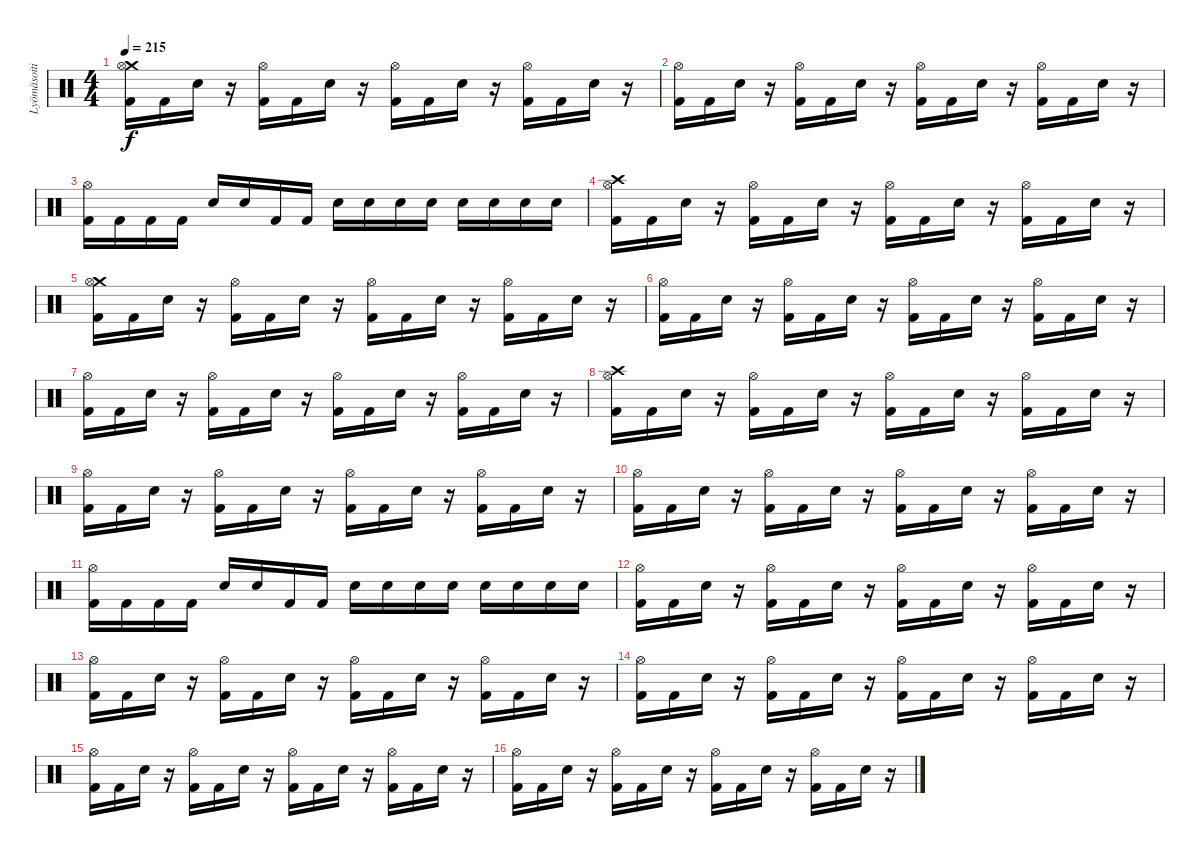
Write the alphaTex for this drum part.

\track ("Lyömäsoitin" "Lyömäsoiti") {instrument percussion}
\staff {score}
\articulation defaults
\ts (4 4)
\tempo 215
\clef neutral
\ks c
("Crash medium (hit)" "Hi-Hat (open)" "Kick (hit) 2").16{dy f} "Kick (hit) 2".16 "Electric Snare (hit)".16 r.16 ("Hi-Hat (open)" "Kick (hit) 2").16 "Kick (hit) 2".16 "Electric Snare (hit)".16 r.16 ("Hi-Hat (open)" "Kick (hit) 2").16 "Kick (hit) 2".16 "Electric Snare (hit)".16 r.16 ("Hi-Hat (open)" "Kick (hit) 2").16 "Kick (hit) 2".16 "Electric Snare (hit)".16 r.16 |
("Hi-Hat (open)" "Kick (hit) 2").16 "Kick (hit) 2".16 "Electric Snare (hit)".16 r.16 ("Hi-Hat (open)" "Kick (hit) 2").16 "Kick (hit) 2".16 "Electric Snare (hit)".16 r.16 ("Hi-Hat (open)" "Kick (hit) 2").16 "Kick (hit) 2".16 "Electric Snare (hit)".16 r.16 ("Hi-Hat (open)" "Kick (hit) 2").16 "Kick (hit) 2".16 "Electric Snare (hit)".16 r.16 |
("Hi-Hat (open)" "Kick (hit) 2").16 "Kick (hit) 2".16 "Kick (hit) 2".16 "Kick (hit) 2".16 "Electric Snare (hit)".16 "Electric Snare (hit)".16 "Kick (hit) 2".16 "Kick (hit) 2".16 "Electric Snare (hit)".16 "Electric Snare (hit)".16 "Electric Snare (hit)".16 "Electric Snare (hit)".16 "Electric Snare (hit)".16 "Electric Snare (hit)".16 "Electric Snare (hit)".16 "Electric Snare (hit)".16 |
("Crash high (hit)" "Hi-Hat (open)" "Kick (hit) 2").16 "Kick (hit) 2".16 "Electric Snare (hit)".16 r.16 ("Hi-Hat (open)" "Kick (hit) 2").16 "Kick (hit) 2".16 "Electric Snare (hit)".16 r.16 ("Hi-Hat (open)" "Kick (hit) 2").16 "Kick (hit) 2".16 "Electric Snare (hit)".16 r.16 ("Hi-Hat (open)" "Kick (hit) 2").16 "Kick (hit) 2".16 "Electric Snare (hit)".16 r.16 |
("Crash medium (hit)" "Hi-Hat (open)" "Kick (hit) 2").16 "Kick (hit) 2".16 "Electric Snare (hit)".16 r.16 ("Hi-Hat (open)" "Kick (hit) 2").16 "Kick (hit) 2".16 "Electric Snare (hit)".16 r.16 ("Hi-Hat (open)" "Kick (hit) 2").16 "Kick (hit) 2".16 "Electric Snare (hit)".16 r.16 ("Hi-Hat (open)" "Kick (hit) 2").16 "Kick (hit) 2".16 "Electric Snare (hit)".16 r.16 |
("Hi-Hat (open)" "Kick (hit) 2").16 "Kick (hit) 2".16 "Electric Snare (hit)".16 r.16 ("Hi-Hat (open)" "Kick (hit) 2").16 "Kick (hit) 2".16 "Electric Snare (hit)".16 r.16 ("Hi-Hat (open)" "Kick (hit) 2").16 "Kick (hit) 2".16 "Electric Snare (hit)".16 r.16 ("Hi-Hat (open)" "Kick (hit) 2").16 "Kick (hit) 2".16 "Electric Snare (hit)".16 r.16 |
("Hi-Hat (open)" "Kick (hit) 2").16 "Kick (hit) 2".16 "Electric Snare (hit)".16 r.16 ("Hi-Hat (open)" "Kick (hit) 2").16 "Kick (hit) 2".16 "Electric Snare (hit)".16 r.16 ("Hi-Hat (open)" "Kick (hit) 2").16 "Kick (hit) 2".16 "Electric Snare (hit)".16 r.16 ("Hi-Hat (open)" "Kick (hit) 2").16 "Kick (hit) 2".16 "Electric Snare (hit)".16 r.16 |
("Crash high (hit)" "Hi-Hat (open)" "Kick (hit) 2").16 "Kick (hit) 2".16 "Electric Snare (hit)".16 r.16 ("Hi-Hat (open)" "Kick (hit) 2").16 "Kick (hit) 2".16 "Electric Snare (hit)".16 r.16 ("Hi-Hat (open)" "Kick (hit) 2").16 "Kick (hit) 2".16 "Electric Snare (hit)".16 r.16 ("Hi-Hat (open)" "Kick (hit) 2").16 "Kick (hit) 2".16 "Electric Snare (hit)".16 r.16 |
("Hi-Hat (open)" "Kick (hit) 2").16 "Kick (hit) 2".16 "Electric Snare (hit)".16 r.16 ("Hi-Hat (open)" "Kick (hit) 2").16 "Kick (hit) 2".16 "Electric Snare (hit)".16 r.16 ("Hi-Hat (open)" "Kick (hit) 2").16 "Kick (hit) 2".16 "Electric Snare (hit)".16 r.16 ("Hi-Hat (open)" "Kick (hit) 2").16 "Kick (hit) 2".16 "Electric Snare (hit)".16 r.16 |
("Hi-Hat (open)" "Kick (hit) 2").16 "Kick (hit) 2".16 "Electric Snare (hit)".16 r.16 ("Hi-Hat (open)" "Kick (hit) 2").16 "Kick (hit) 2".16 "Electric Snare (hit)".16 r.16 ("Hi-Hat (open)" "Kick (hit) 2").16 "Kick (hit) 2".16 "Electric Snare (hit)".16 r.16 ("Hi-Hat (open)" "Kick (hit) 2").16 "Kick (hit) 2".16 "Electric Snare (hit)".16 r.16 |
("Hi-Hat (open)" "Kick (hit) 2").16 "Kick (hit) 2".16 "Kick (hit) 2".16 "Kick (hit) 2".16 "Electric Snare (hit)".16 "Electric Snare (hit)".16 "Kick (hit) 2".16 "Kick (hit) 2".16 "Electric Snare (hit)".16 "Electric Snare (hit)".16 "Electric Snare (hit)".16 "Electric Snare (hit)".16 "Electric Snare (hit)".16 "Electric Snare (hit)".16 "Electric Snare (hit)".16 "Electric Snare (hit)".16 |
("Hi-Hat (open)" "Kick (hit) 2").16 "Kick (hit) 2".16 "Electric Snare (hit)".16 r.16 ("Hi-Hat (open)" "Kick (hit) 2").16 "Kick (hit) 2".16 "Electric Snare (hit)".16 r.16 ("Hi-Hat (open)" "Kick (hit) 2").16 "Kick (hit) 2".16 "Electric Snare (hit)".16 r.16 ("Hi-Hat (open)" "Kick (hit) 2").16 "Kick (hit) 2".16 "Electric Snare (hit)".16 r.16 |
("Hi-Hat (open)" "Kick (hit) 2").16 "Kick (hit) 2".16 "Electric Snare (hit)".16 r.16 ("Hi-Hat (open)" "Kick (hit) 2").16 "Kick (hit) 2".16 "Electric Snare (hit)".16 r.16 ("Hi-Hat (open)" "Kick (hit) 2").16 "Kick (hit) 2".16 "Electric Snare (hit)".16 r.16 ("Hi-Hat (open)" "Kick (hit) 2").16 "Kick (hit) 2".16 "Electric Snare (hit)".16 r.16 |
("Hi-Hat (open)" "Kick (hit) 2").16 "Kick (hit) 2".16 "Electric Snare (hit)".16 r.16 ("Hi-Hat (open)" "Kick (hit) 2").16 "Kick (hit) 2".16 "Electric Snare (hit)".16 r.16 ("Hi-Hat (open)" "Kick (hit) 2").16 "Kick (hit) 2".16 "Electric Snare (hit)".16 r.16 ("Hi-Hat (open)" "Kick (hit) 2").16 "Kick (hit) 2".16 "Electric Snare (hit)".16 r.16 |
("Hi-Hat (open)" "Kick (hit) 2").16 "Kick (hit) 2".16 "Electric Snare (hit)".16 r.16 ("Hi-Hat (open)" "Kick (hit) 2").16 "Kick (hit) 2".16 "Electric Snare (hit)".16 r.16 ("Hi-Hat (open)" "Kick (hit) 2").16 "Kick (hit) 2".16 "Electric Snare (hit)".16 r.16 ("Hi-Hat (open)" "Kick (hit) 2").16 "Kick (hit) 2".16 "Electric Snare (hit)".16 r.16 |
("Hi-Hat (open)" "Kick (hit) 2").16 "Kick (hit) 2".16 "Electric Snare (hit)".16 r.16 ("Hi-Hat (open)" "Kick (hit) 2").16 "Kick (hit) 2".16 "Electric Snare (hit)".16 r.16 ("Hi-Hat (open)" "Kick (hit) 2").16 "Kick (hit) 2".16 "Electric Snare (hit)".16 r.16 ("Hi-Hat (open)" "Kick (hit) 2").16 "Kick (hit) 2".16 "Electric Snare (hit)".16 r.16
